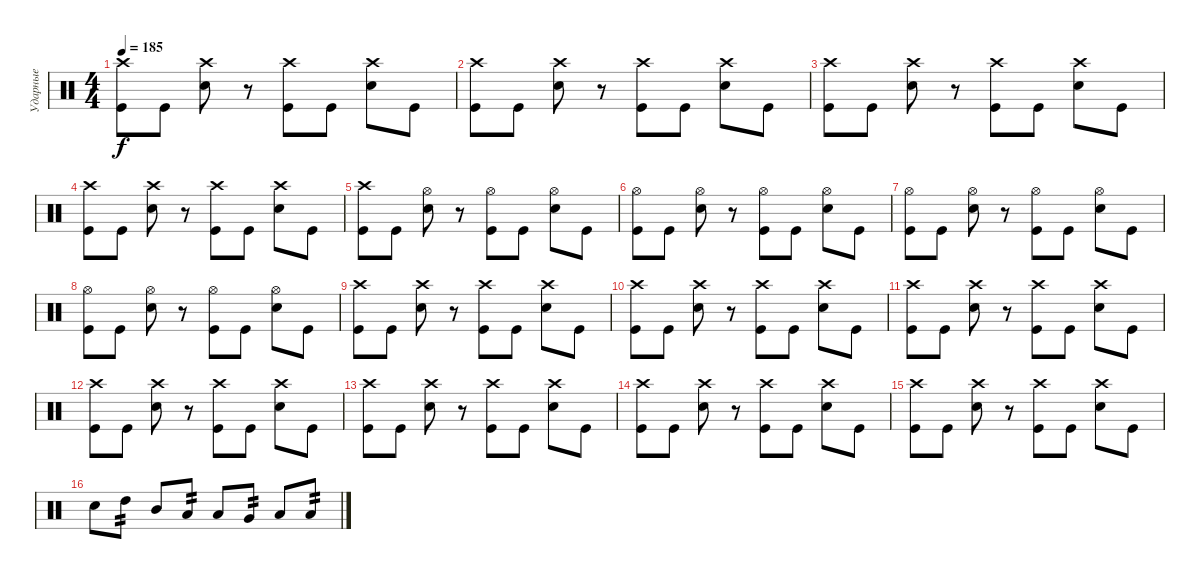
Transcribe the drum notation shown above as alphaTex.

\track ("Ударные" "Ударные") {instrument percussion}
\staff {score}
\articulation defaults
\ts (4 4)
\tempo 185
\clef neutral
\ks c
("Crash high (hit)" "Kick (hit)").8{dy f} "Kick (hit)".8 ("Crash high (hit)" "Snare (hit) 2").8 r.8 ("Crash high (hit)" "Kick (hit)").8 "Kick (hit)".8 ("Crash high (hit)" "Snare (hit) 2").8 "Kick (hit)".8 |
("Crash high (hit)" "Kick (hit)").8 "Kick (hit)".8 ("Crash high (hit)" "Snare (hit) 2").8 r.8 ("Crash high (hit)" "Kick (hit)").8 "Kick (hit)".8 ("Crash high (hit)" "Snare (hit) 2").8 "Kick (hit)".8 |
("Crash high (hit)" "Kick (hit)").8 "Kick (hit)".8 ("Crash high (hit)" "Snare (hit) 2").8 r.8 ("Crash high (hit)" "Kick (hit)").8 "Kick (hit)".8 ("Crash high (hit)" "Snare (hit) 2").8 "Kick (hit)".8 |
("Crash high (hit)" "Kick (hit)").8 "Kick (hit)".8 ("Crash high (hit)" "Snare (hit) 2").8 r.8 ("Crash high (hit)" "Kick (hit)").8 "Kick (hit)".8 ("Crash high (hit)" "Snare (hit) 2").8 "Kick (hit)".8 |
("Crash high (hit)" "Kick (hit)").8 "Kick (hit)".8 ("Hi-Hat (open)" "Snare (hit) 2").8 r.8 ("Hi-Hat (open)" "Kick (hit)").8 "Kick (hit)".8 ("Hi-Hat (open)" "Snare (hit) 2").8 "Kick (hit)".8 |
("Hi-Hat (open)" "Kick (hit)").8 "Kick (hit)".8 ("Hi-Hat (open)" "Snare (hit) 2").8 r.8 ("Hi-Hat (open)" "Kick (hit)").8 "Kick (hit)".8 ("Hi-Hat (open)" "Snare (hit) 2").8 "Kick (hit)".8 |
("Hi-Hat (open)" "Kick (hit)").8 "Kick (hit)".8 ("Hi-Hat (open)" "Snare (hit) 2").8 r.8 ("Hi-Hat (open)" "Kick (hit)").8 "Kick (hit)".8 ("Hi-Hat (open)" "Snare (hit) 2").8 "Kick (hit)".8 |
("Hi-Hat (open)" "Kick (hit)").8 "Kick (hit)".8 ("Hi-Hat (open)" "Snare (hit) 2").8 r.8 ("Hi-Hat (open)" "Kick (hit)").8 "Kick (hit)".8 ("Hi-Hat (open)" "Snare (hit) 2").8 "Kick (hit)".8 |
("Crash high (hit)" "Kick (hit)").8 "Kick (hit)".8 ("Crash high (hit)" "Snare (hit) 2").8 r.8 ("Crash high (hit)" "Kick (hit)").8 "Kick (hit)".8 ("Crash high (hit)" "Snare (hit) 2").8 "Kick (hit)".8 |
("Crash high (hit)" "Kick (hit)").8 "Kick (hit)".8 ("Crash high (hit)" "Snare (hit) 2").8 r.8 ("Crash high (hit)" "Kick (hit)").8 "Kick (hit)".8 ("Crash high (hit)" "Snare (hit) 2").8 "Kick (hit)".8 |
("Crash high (hit)" "Kick (hit)").8 "Kick (hit)".8 ("Crash high (hit)" "Snare (hit) 2").8 r.8 ("Crash high (hit)" "Kick (hit)").8 "Kick (hit)".8 ("Crash high (hit)" "Snare (hit) 2").8 "Kick (hit)".8 |
("Crash high (hit)" "Kick (hit)").8 "Kick (hit)".8 ("Crash high (hit)" "Snare (hit) 2").8 r.8 ("Crash high (hit)" "Kick (hit)").8 "Kick (hit)".8 ("Crash high (hit)" "Snare (hit) 2").8 "Kick (hit)".8 |
("Crash high (hit)" "Kick (hit)").8 "Kick (hit)".8 ("Crash high (hit)" "Snare (hit) 2").8 r.8 ("Crash high (hit)" "Kick (hit)").8 "Kick (hit)".8 ("Crash high (hit)" "Snare (hit) 2").8 "Kick (hit)".8 |
("Crash high (hit)" "Kick (hit)").8 "Kick (hit)".8 ("Crash high (hit)" "Snare (hit) 2").8 r.8 ("Crash high (hit)" "Kick (hit)").8 "Kick (hit)".8 ("Crash high (hit)" "Snare (hit) 2").8 "Kick (hit)".8 |
("Crash high (hit)" "Kick (hit)").8 "Kick (hit)".8 ("Crash high (hit)" "Snare (hit) 2").8 r.8 ("Crash high (hit)" "Kick (hit)").8 "Kick (hit)".8 ("Crash high (hit)" "Snare (hit) 2").8 "Kick (hit)".8 |
"Snare (hit) 2".8 "High Tom (hit)".8{tp 2} "Mid Tom (hit)".8 "Low Tom (hit)".8{tp 2} "Low Tom (hit)".8 "Very Low Tom (hit)".8{tp 2} "Low Floor Tom (hit)".8 "Low Floor Tom (hit)".8{tp 2}
